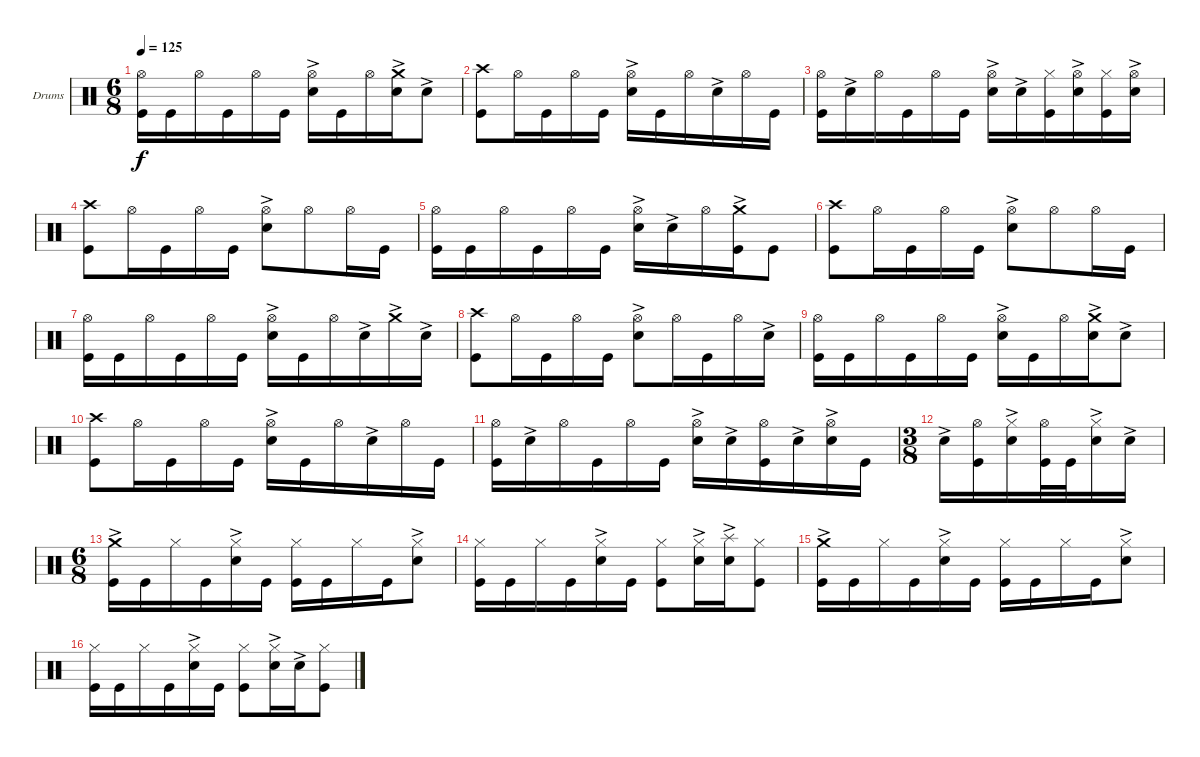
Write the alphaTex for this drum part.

\defaultSystemsLayout 4
\bracketExtendMode groupsimilarinstruments
\firstSystemTrackNameOrientation horizontal
\otherSystemsTrackNameOrientation horizontal
\track ("Drumkit" "Drums") {instrument percussion}
\staff {score}
\articulation defaults
\ts (6 8)
\tempo 125
\clef neutral
\ks c
("Kick (hit)" "Hi-Hat (open)").16{dy f} "Kick (hit)".16 "Hi-Hat (open)".16 "Kick (hit)".16 "Hi-Hat (open)".16 "Kick (hit)".16 ("Hi-Hat (open)" "Snare (hit) 2"{ac}).16 "Kick (hit)".16 "Hi-Hat (open)".16 ("Snare (hit) 2"{ac} "Crash medium (hit)"{ac}).16 "Snare (hit) 2"{ac}.8 |
("Crash high (hit)" "Kick (hit)").8 "Hi-Hat (open)".16 "Kick (hit)".16 "Hi-Hat (open)".16 "Kick (hit)".16 ("Hi-Hat (open)" "Snare (hit) 2"{ac}).16 "Kick (hit)".16 "Hi-Hat (open)".16 "Snare (hit) 2"{ac}.16 "Hi-Hat (open)".16 "Kick (hit)".16 |
("Kick (hit)" "Hi-Hat (open)").16 "Snare (hit) 2"{ac}.16 "Hi-Hat (open)".16 "Kick (hit)".16 "Hi-Hat (open)".16 "Kick (hit)".16 ("Hi-Hat (open)" "Snare (hit) 2"{ac}).16 "Snare (hit) 2"{ac}.16 ("Hi-Hat (closed)" "Kick (hit)").16 ("Snare (hit) 2"{ac} "Hi-Hat (open)").16 ("Hi-Hat (closed)" "Kick (hit)").16 ("Snare (hit) 2"{ac} "Hi-Hat (open)").16 |
("Crash high (hit)" "Kick (hit)").8 "Hi-Hat (open)".16 "Kick (hit)".16 "Hi-Hat (open)".16 "Kick (hit)".16 ("Hi-Hat (open)" "Snare (hit) 2"{ac}).8 "Hi-Hat (open)".8 "Hi-Hat (open)".16 "Kick (hit)".16 |
("Kick (hit)" "Hi-Hat (open)").16 "Kick (hit)".16 "Hi-Hat (open)".16 "Kick (hit)".16 "Hi-Hat (open)".16 "Kick (hit)".16 ("Hi-Hat (open)" "Snare (hit) 2"{ac}).16 "Snare (hit) 2"{ac}.16 "Hi-Hat (open)".16 ("Kick (hit)" "Crash medium (hit)"{ac}).16 "Kick (hit)".8 |
("Crash high (hit)" "Kick (hit)").8 "Hi-Hat (open)".16 "Kick (hit)".16 "Hi-Hat (open)".16 "Kick (hit)".16 ("Hi-Hat (open)" "Snare (hit) 2"{ac}).8 "Hi-Hat (open)".8 "Hi-Hat (open)".16 "Kick (hit)".16 |
("Kick (hit)" "Hi-Hat (open)").16 "Kick (hit)".16 "Hi-Hat (open)".16 "Kick (hit)".16 "Hi-Hat (open)".16 "Kick (hit)".16 ("Hi-Hat (open)" "Snare (hit) 2"{ac}).16 "Kick (hit)".16 "Hi-Hat (open)".16 "Snare (hit) 2"{ac}.16 "Crash medium (hit)"{ac}.16 "Snare (hit) 2"{ac}.16 |
("Crash high (hit)" "Kick (hit)").8 "Hi-Hat (open)".16 "Kick (hit)".16 "Hi-Hat (open)".16 "Kick (hit)".16 ("Hi-Hat (open)" "Snare (hit) 2"{ac}).8 "Hi-Hat (open)".16 "Kick (hit)".16 "Hi-Hat (open)".16 "Snare (hit) 2"{ac}.16 |
("Kick (hit)" "Hi-Hat (open)").16 "Kick (hit)".16 "Hi-Hat (open)".16 "Kick (hit)".16 "Hi-Hat (open)".16 "Kick (hit)".16 ("Hi-Hat (open)" "Snare (hit) 2"{ac}).16 "Kick (hit)".16 "Hi-Hat (open)".16 ("Snare (hit) 2"{ac} "Crash medium (hit)"{ac}).16 "Snare (hit) 2"{ac}.8 |
("Crash high (hit)" "Kick (hit)").8 "Hi-Hat (open)".16 "Kick (hit)".16 "Hi-Hat (open)".16 "Kick (hit)".16 ("Hi-Hat (open)" "Snare (hit) 2"{ac}).16 "Kick (hit)".16 "Hi-Hat (open)".16 "Snare (hit) 2"{ac}.16 "Hi-Hat (open)".16 "Kick (hit)".16 |
("Kick (hit)" "Hi-Hat (open)").16 "Snare (hit) 2"{ac}.16 "Hi-Hat (open)".16 "Kick (hit)".16 "Hi-Hat (open)".16 "Kick (hit)".16 ("Hi-Hat (open)" "Snare (hit) 2"{ac}).16 "Snare (hit) 2"{ac}.16 ("Hi-Hat (open)" "Kick (hit)").16 "Snare (hit) 2"{ac}.16 ("Snare (hit) 2"{ac} "Hi-Hat (open)").16 "Kick (hit)".16 |
\ts (3 8)
"Snare (hit) 2"{ac}.16 ("Kick (hit)" "Hi-Hat (open)").16 ("Snare (hit) 2"{ac} "Hi-Hat (closed)").16 ("Kick (hit)" "Hi-Hat (open)").32 "Kick (hit)".32 ("Snare (hit) 2"{ac} "Hi-Hat (closed)").16 "Snare (hit) 2"{ac}.16 |
\ts (6 8)
("Kick (hit)" "Crash medium (hit)"{ac}).16 "Kick (hit)".16 "Hi-Hat (closed)".16 "Kick (hit)".16 ("Snare (hit) 2"{ac} "Hi-Hat (closed)").16 "Kick (hit)".16 ("Hi-Hat (closed)" "Kick (hit)").16 "Kick (hit)".16 "Hi-Hat (closed)".16 "Kick (hit)".16 ("Hi-Hat (closed)" "Snare (hit) 2"{ac}).8 |
("Kick (hit)" "Hi-Hat (closed)").16 "Kick (hit)".16 "Hi-Hat (closed)".16 "Kick (hit)".16 ("Snare (hit) 2"{ac} "Hi-Hat (closed)").16 "Kick (hit)".16 ("Hi-Hat (closed)" "Kick (hit)").8 ("Hi-Hat (closed)" "Snare (hit) 2"{ac}).16 ("Snare (hit) 2"{ac} "Splash (hit)").16 ("Kick (hit)" "Hi-Hat (closed)").8 |
("Kick (hit)" "Crash medium (hit)"{ac}).16 "Kick (hit)".16 "Hi-Hat (closed)".16 "Kick (hit)".16 ("Snare (hit) 2"{ac} "Hi-Hat (closed)").16 "Kick (hit)".16 ("Hi-Hat (closed)" "Kick (hit)").16 "Kick (hit)".16 "Hi-Hat (closed)".16 "Kick (hit)".16 ("Hi-Hat (closed)" "Snare (hit) 2"{ac}).8 |
("Kick (hit)" "Hi-Hat (closed)").16 "Kick (hit)".16 "Hi-Hat (closed)".16 "Kick (hit)".16 ("Snare (hit) 2"{ac} "Hi-Hat (closed)").16 "Kick (hit)".16 ("Hi-Hat (closed)" "Kick (hit)").8 ("Hi-Hat (closed)" "Snare (hit) 2"{ac}).16 "Snare (hit) 2"{ac}.16 ("Kick (hit)" "Hi-Hat (closed)").8
